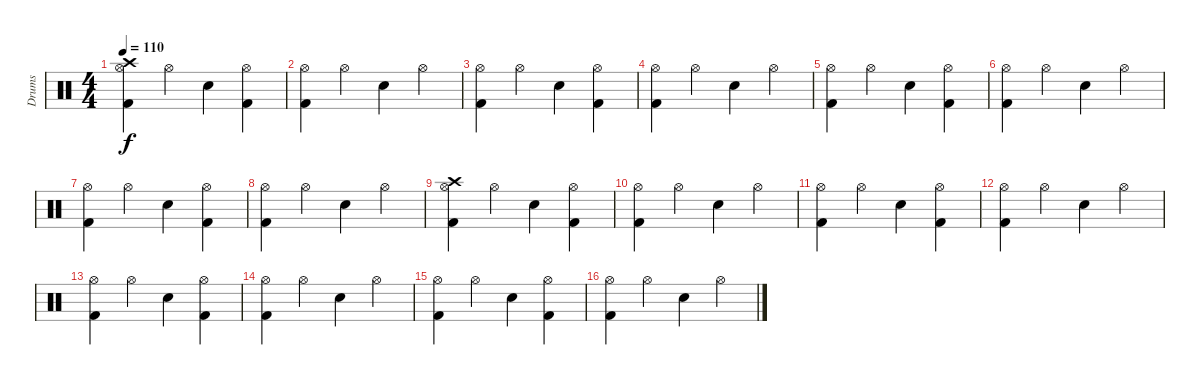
\track ("Drums" "Drums") {instrument percussion}
\staff {score}
\articulation defaults
\ts (4 4)
\tempo 110
\clef neutral
\ks c
("Crash high (hit)" "Hi-Hat (open)" "Kick (hit) 2").4{dy f} "Hi-Hat (open)".4 "Snare (hit) 2".4 ("Hi-Hat (open)" "Kick (hit) 2").4 |
("Hi-Hat (open)" "Kick (hit) 2").4 "Hi-Hat (open)".4 "Snare (hit) 2".4 "Hi-Hat (open)".4 |
("Hi-Hat (open)" "Kick (hit) 2").4 "Hi-Hat (open)".4 "Snare (hit) 2".4 ("Hi-Hat (open)" "Kick (hit) 2").4 |
("Hi-Hat (open)" "Kick (hit) 2").4 "Hi-Hat (open)".4 "Snare (hit) 2".4 "Hi-Hat (open)".4 |
("Hi-Hat (open)" "Kick (hit) 2").4 "Hi-Hat (open)".4 "Snare (hit) 2".4 ("Hi-Hat (open)" "Kick (hit) 2").4 |
("Hi-Hat (open)" "Kick (hit) 2").4 "Hi-Hat (open)".4 "Snare (hit) 2".4 "Hi-Hat (open)".4 |
("Hi-Hat (open)" "Kick (hit) 2").4 "Hi-Hat (open)".4 "Snare (hit) 2".4 ("Hi-Hat (open)" "Kick (hit) 2").4 |
("Hi-Hat (open)" "Kick (hit) 2").4 "Hi-Hat (open)".4 "Snare (hit) 2".4 "Hi-Hat (open)".4 |
("Crash high (hit)" "Hi-Hat (open)" "Kick (hit) 2").4 "Hi-Hat (open)".4 "Snare (hit) 2".4 ("Hi-Hat (open)" "Kick (hit) 2").4 |
("Hi-Hat (open)" "Kick (hit) 2").4 "Hi-Hat (open)".4 "Snare (hit) 2".4 "Hi-Hat (open)".4 |
("Hi-Hat (open)" "Kick (hit) 2").4 "Hi-Hat (open)".4 "Snare (hit) 2".4 ("Hi-Hat (open)" "Kick (hit) 2").4 |
("Hi-Hat (open)" "Kick (hit) 2").4 "Hi-Hat (open)".4 "Snare (hit) 2".4 "Hi-Hat (open)".4 |
("Hi-Hat (open)" "Kick (hit) 2").4 "Hi-Hat (open)".4 "Snare (hit) 2".4 ("Hi-Hat (open)" "Kick (hit) 2").4 |
("Hi-Hat (open)" "Kick (hit) 2").4 "Hi-Hat (open)".4 "Snare (hit) 2".4 "Hi-Hat (open)".4 |
("Hi-Hat (open)" "Kick (hit) 2").4 "Hi-Hat (open)".4 "Snare (hit) 2".4 ("Hi-Hat (open)" "Kick (hit) 2").4 |
("Hi-Hat (open)" "Kick (hit) 2").4 "Hi-Hat (open)".4 "Snare (hit) 2".4 "Hi-Hat (open)".4
